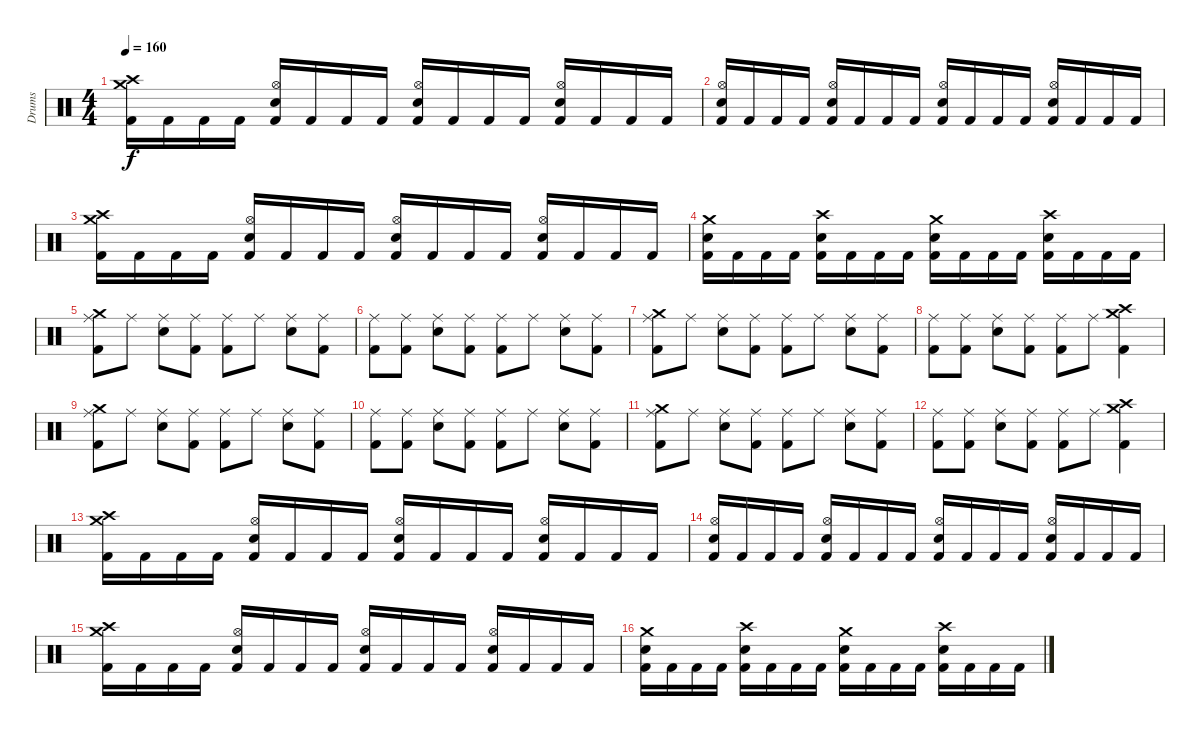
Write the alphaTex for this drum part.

\track ("Drums" "Drums") {instrument percussion}
\staff {score}
\articulation defaults
\ts (4 4)
\tempo 160
\clef neutral
\ks c
("Crash high (hit)" "Crash medium (hit)" "Kick (hit) 2").16{dy f} "Kick (hit) 2".16 "Kick (hit) 2".16 "Kick (hit) 2".16 ("Hi-Hat (open)" "Snare (hit) 2" "Kick (hit) 2").16 "Kick (hit) 2".16 "Kick (hit) 2".16 "Kick (hit) 2".16 ("Hi-Hat (open)" "Snare (hit) 2" "Kick (hit) 2").16 "Kick (hit) 2".16 "Kick (hit) 2".16 "Kick (hit) 2".16 ("Hi-Hat (open)" "Snare (hit) 2" "Kick (hit) 2").16 "Kick (hit) 2".16 "Kick (hit) 2".16 "Kick (hit) 2".16 |
("Hi-Hat (open)" "Snare (hit) 2" "Kick (hit) 2").16 "Kick (hit) 2".16 "Kick (hit) 2".16 "Kick (hit) 2".16 ("Hi-Hat (open)" "Snare (hit) 2" "Kick (hit) 2").16 "Kick (hit) 2".16 "Kick (hit) 2".16 "Kick (hit) 2".16 ("Hi-Hat (open)" "Snare (hit) 2" "Kick (hit) 2").16 "Kick (hit) 2".16 "Kick (hit) 2".16 "Kick (hit) 2".16 ("Hi-Hat (open)" "Snare (hit) 2" "Kick (hit) 2").16 "Kick (hit) 2".16 "Kick (hit) 2".16 "Kick (hit) 2".16 |
("Crash high (hit)" "Crash medium (hit)" "Kick (hit) 2").16 "Kick (hit) 2".16 "Kick (hit) 2".16 "Kick (hit) 2".16 ("Hi-Hat (open)" "Snare (hit) 2" "Kick (hit) 2").16 "Kick (hit) 2".16 "Kick (hit) 2".16 "Kick (hit) 2".16 ("Hi-Hat (open)" "Snare (hit) 2" "Kick (hit) 2").16 "Kick (hit) 2".16 "Kick (hit) 2".16 "Kick (hit) 2".16 ("Hi-Hat (open)" "Snare (hit) 2" "Kick (hit) 2").16 "Kick (hit) 2".16 "Kick (hit) 2".16 "Kick (hit) 2".16 |
("Crash medium (hit)" "Snare (hit) 2" "Kick (hit) 2").16 "Kick (hit) 2".16 "Kick (hit) 2".16 "Kick (hit) 2".16 ("Crash high (hit)" "Snare (hit) 2" "Kick (hit) 2").16 "Kick (hit) 2".16 "Kick (hit) 2".16 "Kick (hit) 2".16 ("Crash medium (hit)" "Snare (hit) 2" "Kick (hit) 2").16 "Kick (hit) 2".16 "Kick (hit) 2".16 "Kick (hit) 2".16 ("Crash high (hit)" "Snare (hit) 2" "Kick (hit) 2").16 "Kick (hit) 2".16 "Kick (hit) 2".16 "Kick (hit) 2".16 |
("Ride (middle)" "Crash medium (hit)" "Kick (hit) 2").8 "Ride (middle)".8 ("Ride (middle)" "Snare (hit) 2").8 ("Ride (middle)" "Kick (hit) 2").8 ("Ride (middle)" "Kick (hit) 2").8 "Ride (middle)".8 ("Ride (middle)" "Snare (hit) 2").8 ("Ride (middle)" "Kick (hit) 2").8 |
("Ride (middle)" "Kick (hit) 2").8 ("Ride (middle)" "Kick (hit) 2").8 ("Ride (middle)" "Snare (hit) 2").8 ("Ride (middle)" "Kick (hit) 2").8 ("Ride (middle)" "Kick (hit) 2").8 "Ride (middle)".8 ("Ride (middle)" "Snare (hit) 2").8 ("Ride (middle)" "Kick (hit) 2").8 |
("Ride (middle)" "Crash medium (hit)" "Kick (hit) 2").8 "Ride (middle)".8 ("Ride (middle)" "Snare (hit) 2").8 ("Ride (middle)" "Kick (hit) 2").8 ("Ride (middle)" "Kick (hit) 2").8 "Ride (middle)".8 ("Ride (middle)" "Snare (hit) 2").8 ("Ride (middle)" "Kick (hit) 2").8 |
("Ride (middle)" "Kick (hit) 2").8 ("Ride (middle)" "Kick (hit) 2").8 ("Ride (middle)" "Snare (hit) 2").8 ("Ride (middle)" "Kick (hit) 2").8 ("Ride (middle)" "Kick (hit) 2").8 "Ride (middle)".8 ("Crash medium (hit)" "Crash high (hit)" "Kick (hit) 2").4 |
("Ride (middle)" "Crash medium (hit)" "Kick (hit) 2").8 "Ride (middle)".8 ("Ride (middle)" "Snare (hit) 2").8 ("Ride (middle)" "Kick (hit) 2").8 ("Ride (middle)" "Kick (hit) 2").8 "Ride (middle)".8 ("Ride (middle)" "Snare (hit) 2").8 ("Ride (middle)" "Kick (hit) 2").8 |
("Ride (middle)" "Kick (hit) 2").8 ("Ride (middle)" "Kick (hit) 2").8 ("Ride (middle)" "Snare (hit) 2").8 ("Ride (middle)" "Kick (hit) 2").8 ("Ride (middle)" "Kick (hit) 2").8 "Ride (middle)".8 ("Ride (middle)" "Snare (hit) 2").8 ("Ride (middle)" "Kick (hit) 2").8 |
("Ride (middle)" "Crash medium (hit)" "Kick (hit) 2").8 "Ride (middle)".8 ("Ride (middle)" "Snare (hit) 2").8 ("Ride (middle)" "Kick (hit) 2").8 ("Ride (middle)" "Kick (hit) 2").8 "Ride (middle)".8 ("Ride (middle)" "Snare (hit) 2").8 ("Ride (middle)" "Kick (hit) 2").8 |
("Ride (middle)" "Kick (hit) 2").8 ("Ride (middle)" "Kick (hit) 2").8 ("Ride (middle)" "Snare (hit) 2").8 ("Ride (middle)" "Kick (hit) 2").8 ("Ride (middle)" "Kick (hit) 2").8 "Ride (middle)".8 ("Crash medium (hit)" "Crash high (hit)" "Kick (hit) 2").4 |
("Crash high (hit)" "Crash medium (hit)" "Kick (hit) 2").16 "Kick (hit) 2".16 "Kick (hit) 2".16 "Kick (hit) 2".16 ("Hi-Hat (open)" "Snare (hit) 2" "Kick (hit) 2").16 "Kick (hit) 2".16 "Kick (hit) 2".16 "Kick (hit) 2".16 ("Hi-Hat (open)" "Snare (hit) 2" "Kick (hit) 2").16 "Kick (hit) 2".16 "Kick (hit) 2".16 "Kick (hit) 2".16 ("Hi-Hat (open)" "Snare (hit) 2" "Kick (hit) 2").16 "Kick (hit) 2".16 "Kick (hit) 2".16 "Kick (hit) 2".16 |
("Hi-Hat (open)" "Snare (hit) 2" "Kick (hit) 2").16 "Kick (hit) 2".16 "Kick (hit) 2".16 "Kick (hit) 2".16 ("Hi-Hat (open)" "Snare (hit) 2" "Kick (hit) 2").16 "Kick (hit) 2".16 "Kick (hit) 2".16 "Kick (hit) 2".16 ("Hi-Hat (open)" "Snare (hit) 2" "Kick (hit) 2").16 "Kick (hit) 2".16 "Kick (hit) 2".16 "Kick (hit) 2".16 ("Hi-Hat (open)" "Snare (hit) 2" "Kick (hit) 2").16 "Kick (hit) 2".16 "Kick (hit) 2".16 "Kick (hit) 2".16 |
("Crash high (hit)" "Crash medium (hit)" "Kick (hit) 2").16 "Kick (hit) 2".16 "Kick (hit) 2".16 "Kick (hit) 2".16 ("Hi-Hat (open)" "Snare (hit) 2" "Kick (hit) 2").16 "Kick (hit) 2".16 "Kick (hit) 2".16 "Kick (hit) 2".16 ("Hi-Hat (open)" "Snare (hit) 2" "Kick (hit) 2").16 "Kick (hit) 2".16 "Kick (hit) 2".16 "Kick (hit) 2".16 ("Hi-Hat (open)" "Snare (hit) 2" "Kick (hit) 2").16 "Kick (hit) 2".16 "Kick (hit) 2".16 "Kick (hit) 2".16 |
("Crash medium (hit)" "Snare (hit) 2" "Kick (hit) 2").16 "Kick (hit) 2".16 "Kick (hit) 2".16 "Kick (hit) 2".16 ("Crash high (hit)" "Snare (hit) 2" "Kick (hit) 2").16 "Kick (hit) 2".16 "Kick (hit) 2".16 "Kick (hit) 2".16 ("Crash medium (hit)" "Snare (hit) 2" "Kick (hit) 2").16 "Kick (hit) 2".16 "Kick (hit) 2".16 "Kick (hit) 2".16 ("Crash high (hit)" "Snare (hit) 2" "Kick (hit) 2").16 "Kick (hit) 2".16 "Kick (hit) 2".16 "Kick (hit) 2".16
